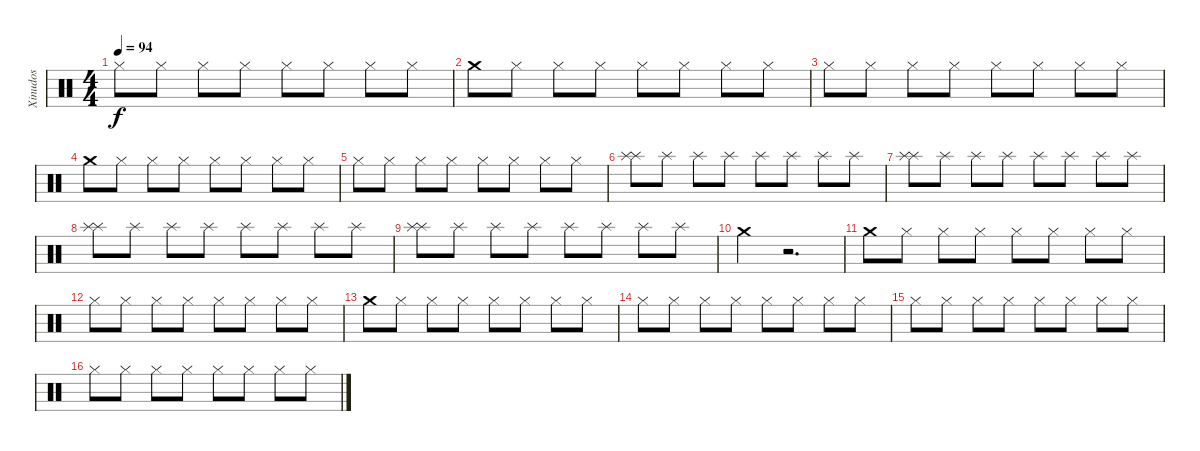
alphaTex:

\track ("Xinudos" "Xinudos") {instrument percussion}
\staff {score}
\articulation defaults
\ts (4 4)
\tempo 94
\clef neutral
\ks c "Hi-Hat (closed)".8{dy f} "Hi-Hat (closed)".8 "Hi-Hat (closed)".8 "Hi-Hat (closed)".8 "Hi-Hat (closed)".8 "Hi-Hat (closed)".8 "Hi-Hat (closed)".8 "Hi-Hat (closed)".8
|
"Crash medium (hit)".8 "Hi-Hat (closed)".8 "Hi-Hat (closed)".8 "Hi-Hat (closed)".8 "Hi-Hat (closed)".8 "Hi-Hat (closed)".8 "Hi-Hat (closed)".8 "Hi-Hat (closed)".8 |
"Hi-Hat (closed)".8 "Hi-Hat (closed)".8 "Hi-Hat (closed)".8 "Hi-Hat (closed)".8 "Hi-Hat (closed)".8 "Hi-Hat (closed)".8 "Hi-Hat (closed)".8 "Hi-Hat (closed)".8 |
"Crash medium (hit)".8 "Hi-Hat (closed)".8 "Hi-Hat (closed)".8 "Hi-Hat (closed)".8 "Hi-Hat (closed)".8 "Hi-Hat (closed)".8 "Hi-Hat (closed)".8 "Hi-Hat (closed)".8 |
"Hi-Hat (closed)".8 "Hi-Hat (closed)".8 "Hi-Hat (closed)".8 "Hi-Hat (closed)".8 "Hi-Hat (closed)".8 "Hi-Hat (closed)".8 "Hi-Hat (closed)".8 "Hi-Hat (closed)".8 |
("Splash (hit)" "Splash (hit)").8 "Splash (hit)".8 "Splash (hit)".8 "Splash (hit)".8 "Splash (hit)".8 "Splash (hit)".8 "Splash (hit)".8 "Splash (hit)".8 |
("Splash (hit)" "Splash (hit)").8 "Splash (hit)".8 "Splash (hit)".8 "Splash (hit)".8 "Splash (hit)".8 "Splash (hit)".8 "Splash (hit)".8 "Splash (hit)".8 |
("Splash (hit)" "Splash (hit)").8 "Splash (hit)".8 "Splash (hit)".8 "Splash (hit)".8 "Splash (hit)".8 "Splash (hit)".8 "Splash (hit)".8 "Splash (hit)".8 |
("Splash (hit)" "Splash (hit)").8 "Splash (hit)".8 "Splash (hit)".8 "Splash (hit)".8 "Splash (hit)".8 "Splash (hit)".8 "Splash (hit)".8 "Splash (hit)".8 |
"Crash medium (hit)".4 r.2{d} |
"Crash medium (hit)".8 "Hi-Hat (closed)".8 "Hi-Hat (closed)".8 "Hi-Hat (closed)".8 "Hi-Hat (closed)".8 "Hi-Hat (closed)".8 "Hi-Hat (closed)".8 "Hi-Hat (closed)".8 |
"Hi-Hat (closed)".8 "Hi-Hat (closed)".8 "Hi-Hat (closed)".8 "Hi-Hat (closed)".8 "Hi-Hat (closed)".8 "Hi-Hat (closed)".8 "Hi-Hat (closed)".8 "Hi-Hat (closed)".8 |
"Crash medium (hit)".8 "Hi-Hat (closed)".8 "Hi-Hat (closed)".8 "Hi-Hat (closed)".8 "Hi-Hat (closed)".8 "Hi-Hat (closed)".8 "Hi-Hat (closed)".8 "Hi-Hat (closed)".8 |
"Hi-Hat (closed)".8 "Hi-Hat (closed)".8 "Hi-Hat (closed)".8 "Hi-Hat (closed)".8 "Hi-Hat (closed)".8 "Hi-Hat (closed)".8 "Hi-Hat (closed)".8 "Hi-Hat (closed)".8 |
"Hi-Hat (closed)".8 "Hi-Hat (closed)".8 "Hi-Hat (closed)".8 "Hi-Hat (closed)".8 "Hi-Hat (closed)".8 "Hi-Hat (closed)".8 "Hi-Hat (closed)".8 "Hi-Hat (closed)".8 |
"Hi-Hat (closed)".8 "Hi-Hat (closed)".8 "Hi-Hat (closed)".8 "Hi-Hat (closed)".8 "Hi-Hat (closed)".8 "Hi-Hat (closed)".8 "Hi-Hat (closed)".8 "Hi-Hat (closed)".8
